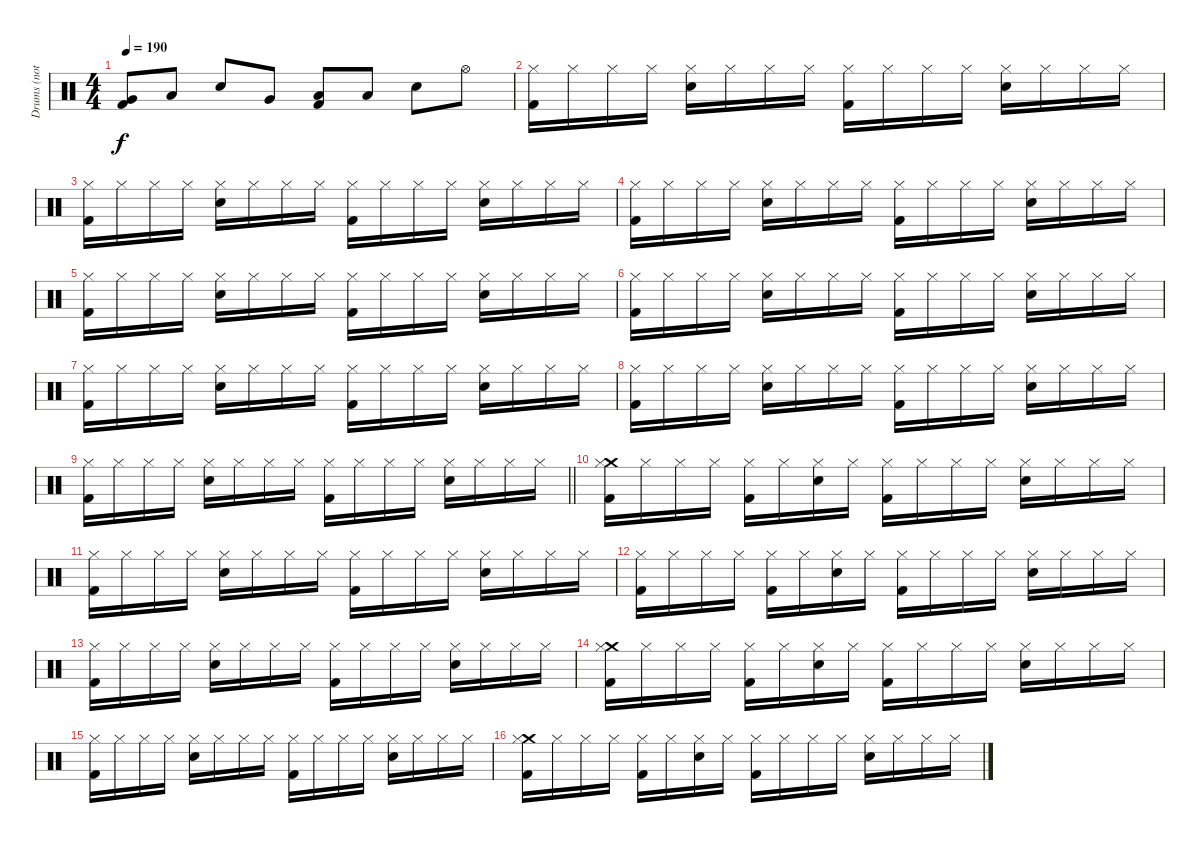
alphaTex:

\track ("Drums (not correct)" "Drums (not") {instrument percussion}
\staff {score}
\articulation defaults
\ts (4 4)
\tempo 190
\clef neutral
\ks c
("Very Low Tom (hit)" "Kick (hit) 2").8{dy f} "Low Floor Tom (hit)".8 "Electric Snare (hit)".8 "Very Low Tom (hit)".8 ("Low Floor Tom (hit)" "Kick (hit) 2").8 "Low Floor Tom (hit)".8 "Electric Snare (hit)".8 "Hi-Hat (open)".8 |
("Hi-Hat (closed)" "Kick (hit) 2").16 "Hi-Hat (closed)".16 "Hi-Hat (closed)".16 "Hi-Hat (closed)".16 ("Hi-Hat (closed)" "Electric Snare (hit)").16 "Hi-Hat (closed)".16 "Hi-Hat (closed)".16 "Hi-Hat (closed)".16 ("Hi-Hat (closed)" "Kick (hit) 2").16 "Hi-Hat (closed)".16 "Hi-Hat (closed)".16 "Hi-Hat (closed)".16 ("Hi-Hat (closed)" "Electric Snare (hit)").16 "Hi-Hat (closed)".16 "Hi-Hat (closed)".16 "Hi-Hat (closed)".16 |
("Hi-Hat (closed)" "Kick (hit) 2").16 "Hi-Hat (closed)".16 "Hi-Hat (closed)".16 "Hi-Hat (closed)".16 ("Hi-Hat (closed)" "Electric Snare (hit)").16 "Hi-Hat (closed)".16 "Hi-Hat (closed)".16 "Hi-Hat (closed)".16 ("Hi-Hat (closed)" "Kick (hit) 2").16 "Hi-Hat (closed)".16 "Hi-Hat (closed)".16 "Hi-Hat (closed)".16 ("Hi-Hat (closed)" "Electric Snare (hit)").16 "Hi-Hat (closed)".16 "Hi-Hat (closed)".16 "Hi-Hat (closed)".16 |
("Hi-Hat (closed)" "Kick (hit) 2").16 "Hi-Hat (closed)".16 "Hi-Hat (closed)".16 "Hi-Hat (closed)".16 ("Hi-Hat (closed)" "Electric Snare (hit)").16 "Hi-Hat (closed)".16 "Hi-Hat (closed)".16 "Hi-Hat (closed)".16 ("Hi-Hat (closed)" "Kick (hit) 2").16 "Hi-Hat (closed)".16 "Hi-Hat (closed)".16 "Hi-Hat (closed)".16 ("Hi-Hat (closed)" "Electric Snare (hit)").16 "Hi-Hat (closed)".16 "Hi-Hat (closed)".16 "Hi-Hat (closed)".16 |
("Hi-Hat (closed)" "Kick (hit) 2").16 "Hi-Hat (closed)".16 "Hi-Hat (closed)".16 "Hi-Hat (closed)".16 ("Hi-Hat (closed)" "Electric Snare (hit)").16 "Hi-Hat (closed)".16 "Hi-Hat (closed)".16 "Hi-Hat (closed)".16 ("Hi-Hat (closed)" "Kick (hit) 2").16 "Hi-Hat (closed)".16 "Hi-Hat (closed)".16 "Hi-Hat (closed)".16 ("Hi-Hat (closed)" "Electric Snare (hit)").16 "Hi-Hat (closed)".16 "Hi-Hat (closed)".16 "Hi-Hat (closed)".16 |
("Hi-Hat (closed)" "Kick (hit) 2").16 "Hi-Hat (closed)".16 "Hi-Hat (closed)".16 "Hi-Hat (closed)".16 ("Hi-Hat (closed)" "Electric Snare (hit)").16 "Hi-Hat (closed)".16 "Hi-Hat (closed)".16 "Hi-Hat (closed)".16 ("Hi-Hat (closed)" "Kick (hit) 2").16 "Hi-Hat (closed)".16 "Hi-Hat (closed)".16 "Hi-Hat (closed)".16 ("Hi-Hat (closed)" "Electric Snare (hit)").16 "Hi-Hat (closed)".16 "Hi-Hat (closed)".16 "Hi-Hat (closed)".16 |
("Hi-Hat (closed)" "Kick (hit) 2").16 "Hi-Hat (closed)".16 "Hi-Hat (closed)".16 "Hi-Hat (closed)".16 ("Hi-Hat (closed)" "Electric Snare (hit)").16 "Hi-Hat (closed)".16 "Hi-Hat (closed)".16 "Hi-Hat (closed)".16 ("Hi-Hat (closed)" "Kick (hit) 2").16 "Hi-Hat (closed)".16 "Hi-Hat (closed)".16 "Hi-Hat (closed)".16 ("Hi-Hat (closed)" "Electric Snare (hit)").16 "Hi-Hat (closed)".16 "Hi-Hat (closed)".16 "Hi-Hat (closed)".16 |
("Hi-Hat (closed)" "Kick (hit) 2").16 "Hi-Hat (closed)".16 "Hi-Hat (closed)".16 "Hi-Hat (closed)".16 ("Hi-Hat (closed)" "Electric Snare (hit)").16 "Hi-Hat (closed)".16 "Hi-Hat (closed)".16 "Hi-Hat (closed)".16 ("Hi-Hat (closed)" "Kick (hit) 2").16 "Hi-Hat (closed)".16 "Hi-Hat (closed)".16 "Hi-Hat (closed)".16 ("Hi-Hat (closed)" "Electric Snare (hit)").16 "Hi-Hat (closed)".16 "Hi-Hat (closed)".16 "Hi-Hat (closed)".16 |
\barLineRight lightlight
("Hi-Hat (closed)" "Kick (hit) 2").16 "Hi-Hat (closed)".16 "Hi-Hat (closed)".16 "Hi-Hat (closed)".16 ("Hi-Hat (closed)" "Electric Snare (hit)").16 "Hi-Hat (closed)".16 "Hi-Hat (closed)".16 "Hi-Hat (closed)".16 ("Hi-Hat (closed)" "Kick (hit) 2").16 "Hi-Hat (closed)".16 "Hi-Hat (closed)".16 "Hi-Hat (closed)".16 ("Hi-Hat (closed)" "Electric Snare (hit)").16 "Hi-Hat (closed)".16 "Hi-Hat (closed)".16 "Hi-Hat (closed)".16 |
\section ("" "")
("Crash medium (hit)" "Hi-Hat (closed)" "Kick (hit) 2").16 "Hi-Hat (closed)".16 "Hi-Hat (closed)".16 "Hi-Hat (closed)".16 ("Hi-Hat (closed)" "Kick (hit) 2").16 "Hi-Hat (closed)".16 ("Hi-Hat (closed)" "Electric Snare (hit)").16 "Hi-Hat (closed)".16 ("Hi-Hat (closed)" "Kick (hit) 2").16 "Hi-Hat (closed)".16 "Hi-Hat (closed)".16 "Hi-Hat (closed)".16 ("Hi-Hat (closed)" "Electric Snare (hit)").16 "Hi-Hat (closed)".16 "Hi-Hat (closed)".16 "Hi-Hat (closed)".16 |
("Hi-Hat (closed)" "Kick (hit) 2").16 "Hi-Hat (closed)".16 "Hi-Hat (closed)".16 "Hi-Hat (closed)".16 ("Hi-Hat (closed)" "Electric Snare (hit)").16 "Hi-Hat (closed)".16 "Hi-Hat (closed)".16 "Hi-Hat (closed)".16 ("Hi-Hat (closed)" "Kick (hit) 2").16 "Hi-Hat (closed)".16 "Hi-Hat (closed)".16 "Hi-Hat (closed)".16 ("Hi-Hat (closed)" "Electric Snare (hit)").16 "Hi-Hat (closed)".16 "Hi-Hat (closed)".16 "Hi-Hat (closed)".16 |
("Hi-Hat (closed)" "Kick (hit) 2").16 "Hi-Hat (closed)".16 "Hi-Hat (closed)".16 "Hi-Hat (closed)".16 ("Hi-Hat (closed)" "Kick (hit) 2").16 "Hi-Hat (closed)".16 ("Hi-Hat (closed)" "Electric Snare (hit)").16 "Hi-Hat (closed)".16 ("Hi-Hat (closed)" "Kick (hit) 2").16 "Hi-Hat (closed)".16 "Hi-Hat (closed)".16 "Hi-Hat (closed)".16 ("Hi-Hat (closed)" "Electric Snare (hit)").16 "Hi-Hat (closed)".16 "Hi-Hat (closed)".16 "Hi-Hat (closed)".16 |
("Hi-Hat (closed)" "Kick (hit) 2").16 "Hi-Hat (closed)".16 "Hi-Hat (closed)".16 "Hi-Hat (closed)".16 ("Hi-Hat (closed)" "Electric Snare (hit)").16 "Hi-Hat (closed)".16 "Hi-Hat (closed)".16 "Hi-Hat (closed)".16 ("Hi-Hat (closed)" "Kick (hit) 2").16 "Hi-Hat (closed)".16 "Hi-Hat (closed)".16 "Hi-Hat (closed)".16 ("Hi-Hat (closed)" "Electric Snare (hit)").16 "Hi-Hat (closed)".16 "Hi-Hat (closed)".16 "Hi-Hat (closed)".16 |
("Crash medium (hit)" "Hi-Hat (closed)" "Kick (hit) 2").16 "Hi-Hat (closed)".16 "Hi-Hat (closed)".16 "Hi-Hat (closed)".16 ("Hi-Hat (closed)" "Kick (hit) 2").16 "Hi-Hat (closed)".16 ("Hi-Hat (closed)" "Electric Snare (hit)").16 "Hi-Hat (closed)".16 ("Hi-Hat (closed)" "Kick (hit) 2").16 "Hi-Hat (closed)".16 "Hi-Hat (closed)".16 "Hi-Hat (closed)".16 ("Hi-Hat (closed)" "Electric Snare (hit)").16 "Hi-Hat (closed)".16 "Hi-Hat (closed)".16 "Hi-Hat (closed)".16 |
("Hi-Hat (closed)" "Kick (hit) 2").16 "Hi-Hat (closed)".16 "Hi-Hat (closed)".16 "Hi-Hat (closed)".16 ("Hi-Hat (closed)" "Electric Snare (hit)").16 "Hi-Hat (closed)".16 "Hi-Hat (closed)".16 "Hi-Hat (closed)".16 ("Hi-Hat (closed)" "Kick (hit) 2").16 "Hi-Hat (closed)".16 "Hi-Hat (closed)".16 "Hi-Hat (closed)".16 ("Hi-Hat (closed)" "Electric Snare (hit)").16 "Hi-Hat (closed)".16 "Hi-Hat (closed)".16 "Hi-Hat (closed)".16 |
("Crash medium (hit)" "Hi-Hat (closed)" "Kick (hit) 2").16 "Hi-Hat (closed)".16 "Hi-Hat (closed)".16 "Hi-Hat (closed)".16 ("Hi-Hat (closed)" "Kick (hit) 2").16 "Hi-Hat (closed)".16 ("Hi-Hat (closed)" "Electric Snare (hit)").16 "Hi-Hat (closed)".16 ("Hi-Hat (closed)" "Kick (hit) 2").16 "Hi-Hat (closed)".16 "Hi-Hat (closed)".16 "Hi-Hat (closed)".16 ("Hi-Hat (closed)" "Electric Snare (hit)").16 "Hi-Hat (closed)".16 "Hi-Hat (closed)".16 "Hi-Hat (closed)".16
